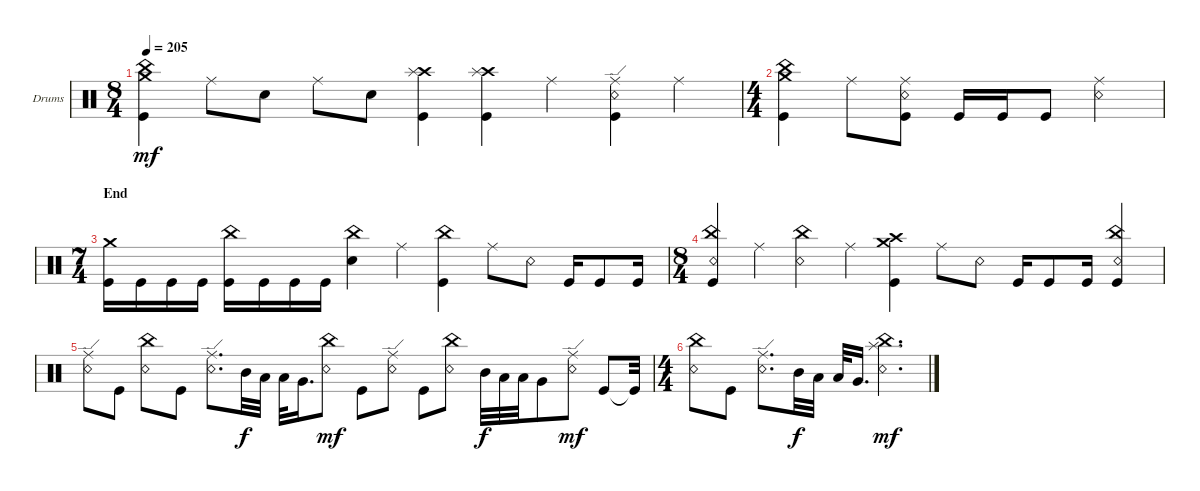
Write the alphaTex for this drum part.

\defaultSystemsLayout 4
\bracketExtendMode groupsimilarinstruments
\firstSystemTrackNameOrientation horizontal
\otherSystemsTrackNameOrientation horizontal
\track ("GordiBuena" "Drums") {instrument percussion}
\staff {score}
\articulation defaults
\ts (8 4)
\tempo 205
\clef neutral
\ks c
("Kick (hit)" "Crash medium (hit)" "China (hit)").4{dy mf} "Ride (middle)".8 "Snare (hit) 2".8 "Ride (middle)".8 "Snare (hit) 2".8 ("Kick (hit)" "Crash high (hit)" "Splash (hit)").4 ("Kick (hit)" "Crash high (hit)" "Splash (hit)").4 "Ride (middle)".4 ("Kick (hit)" "Snare (rim shot)" "Ride (edge)").4 "Ride (middle)".4 |
\ts (4 4)
("Kick (hit)" "Crash medium (hit)" "China (hit)").4 "Ride (middle)".8 ("Kick (hit)" "Snare (rim shot)" "Ride (middle)").8 "Kick (hit)".16 "Kick (hit)".16 "Kick (hit)".8 ("Snare (rim shot)" "Ride (middle)").4 |
\ts (7 4)
\section ("" "End")
("Kick (hit)" "Crash medium (hit)").16 "Kick (hit)".16 "Kick (hit)".16 "Kick (hit)".16 ("Kick (hit)" "China (hit)").16 "Kick (hit)".16 "Kick (hit)".16 "Kick (hit)".16 ("Snare (hit) 2" "China (hit)").4 "Ride (middle)".4 ("Kick (hit)" "China (hit)").4 "Ride (middle)".8 "Snare (rim shot)".8 "Kick (hit)".16 "Kick (hit)".8 "Kick (hit)".16 |
\ts (8 4)
("Snare (rim shot)" "Kick (hit)" "China (hit)").4 "Ride (middle)".4 ("Snare (rim shot)" "China (hit)").4 "Ride (middle)".4 ("Kick (hit)" "Crash medium (hit)" "Crash high (hit)").4 "Ride (middle)".8 "Snare (rim shot)".8 "Kick (hit)".16 "Kick (hit)".8 "Kick (hit)".16 ("Snare (rim shot)" "Kick (hit)" "China (hit)").4 |
("Snare (rim shot)" "Ride (edge)").8 "Kick (hit)".8 ("Snare (rim shot)" "China (hit)").8 "Kick (hit)".8 ("Snare (rim shot)" "Ride (edge)").8{d} "Mid Tom (hit)".32{dy f} "Low Tom (hit)".32 "Low Tom (hit)".32 "Very Low Tom (hit)".16{d} ("Snare (rim shot)" "China (hit)").8{dy mf} "Kick (hit)".8 ("Snare (rim shot)" "Ride (edge)").8 "Kick (hit)".8 ("Snare (rim shot)" "China (hit)").8 "Mid Tom (hit)".32{dy f} "Low Tom (hit)".32 "Low Tom (hit)".32 "Very Low Tom (hit)".8 ("Snare (rim shot)" "Ride (edge)").8{dy mf} "Kick (hit)".8 "Kick (hit)"{t}.32 |
\ts (4 4)
("Snare (rim shot)" "China (hit)").8 "Kick (hit)".8 ("Snare (rim shot)" "Ride (edge)").8{d} "Mid Tom (hit)".32{dy f} "Low Tom (hit)".32 "Low Tom (hit)".32 "Very Low Tom (hit)".16{d} ("Snare (rim shot)" "Splash (hit)" "China (hit)").4{d dy mf}
